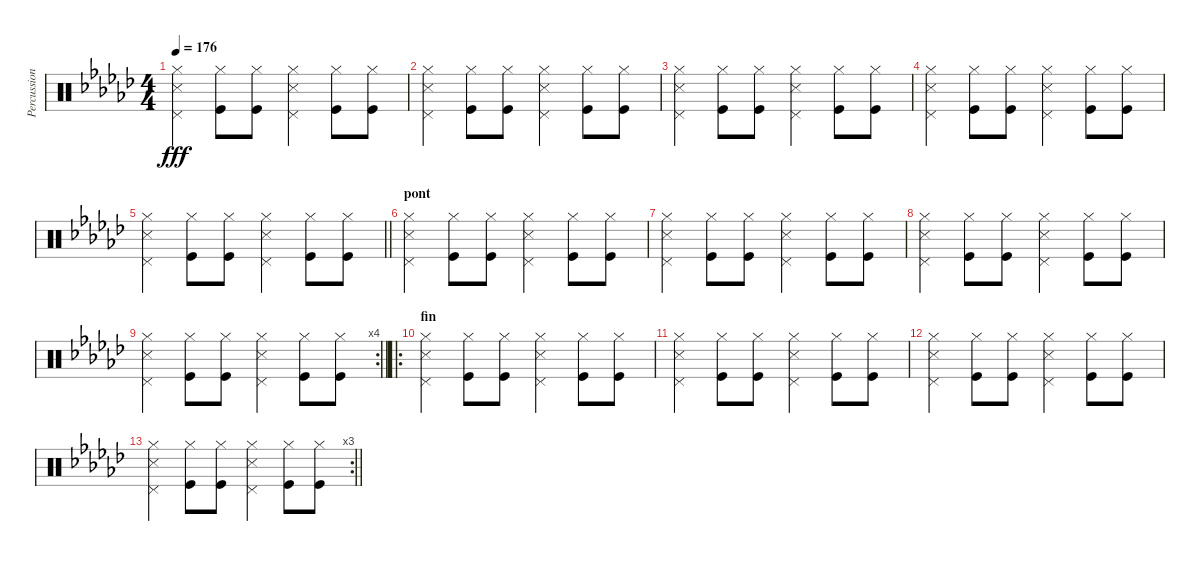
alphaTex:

\track ("Percussions" "Percussion") {instrument percussion}
\staff {score}
\articulation defaults
\ts (4 4)
\tempo 176
\clef neutral
\ks gb
("Snare (side stick) 3" "Pedal Hi-Hat (hit)" "Hi-Hat (closed)").4{dy fff} ("Kick (hit)" "Hi-Hat (closed)").8 ("Kick (hit)" "Hi-Hat (closed)").8 ("Snare (side stick) 3" "Pedal Hi-Hat (hit)" "Hi-Hat (closed)").4 ("Kick (hit)" "Hi-Hat (closed)").8 ("Kick (hit)" "Hi-Hat (closed)").8 |
("Snare (side stick) 3" "Pedal Hi-Hat (hit)" "Hi-Hat (closed)").4 ("Kick (hit)" "Hi-Hat (closed)").8 ("Kick (hit)" "Hi-Hat (closed)").8 ("Snare (side stick) 3" "Pedal Hi-Hat (hit)" "Hi-Hat (closed)").4 ("Kick (hit)" "Hi-Hat (closed)").8 ("Kick (hit)" "Hi-Hat (closed)").8 |
("Snare (side stick) 3" "Pedal Hi-Hat (hit)" "Hi-Hat (closed)").4 ("Kick (hit)" "Hi-Hat (closed)").8 ("Kick (hit)" "Hi-Hat (closed)").8 ("Snare (side stick) 3" "Pedal Hi-Hat (hit)" "Hi-Hat (closed)").4 ("Kick (hit)" "Hi-Hat (closed)").8 ("Kick (hit)" "Hi-Hat (closed)").8 |
("Snare (side stick) 3" "Pedal Hi-Hat (hit)" "Hi-Hat (closed)").4 ("Kick (hit)" "Hi-Hat (closed)").8 ("Kick (hit)" "Hi-Hat (closed)").8 ("Snare (side stick) 3" "Pedal Hi-Hat (hit)" "Hi-Hat (closed)").4 ("Kick (hit)" "Hi-Hat (closed)").8 ("Kick (hit)" "Hi-Hat (closed)").8 |
\barLineRight lightlight
("Snare (side stick) 3" "Pedal Hi-Hat (hit)" "Hi-Hat (closed)").4 ("Kick (hit)" "Hi-Hat (closed)").8 ("Kick (hit)" "Hi-Hat (closed)").8 ("Snare (side stick) 3" "Pedal Hi-Hat (hit)" "Hi-Hat (closed)").4 ("Kick (hit)" "Hi-Hat (closed)").8 ("Kick (hit)" "Hi-Hat (closed)").8 |
\section ("" "pont")
("Snare (side stick) 3" "Pedal Hi-Hat (hit)" "Hi-Hat (closed)").4 ("Kick (hit)" "Hi-Hat (closed)").8 ("Kick (hit)" "Hi-Hat (closed)").8 ("Snare (side stick) 3" "Pedal Hi-Hat (hit)" "Hi-Hat (closed)").4 ("Kick (hit)" "Hi-Hat (closed)").8 ("Kick (hit)" "Hi-Hat (closed)").8 |
("Snare (side stick) 3" "Pedal Hi-Hat (hit)" "Hi-Hat (closed)").4 ("Kick (hit)" "Hi-Hat (closed)").8 ("Kick (hit)" "Hi-Hat (closed)").8 ("Snare (side stick) 3" "Pedal Hi-Hat (hit)" "Hi-Hat (closed)").4 ("Kick (hit)" "Hi-Hat (closed)").8 ("Kick (hit)" "Hi-Hat (closed)").8 |
("Snare (side stick) 3" "Pedal Hi-Hat (hit)" "Hi-Hat (closed)").4 ("Kick (hit)" "Hi-Hat (closed)").8 ("Kick (hit)" "Hi-Hat (closed)").8 ("Snare (side stick) 3" "Pedal Hi-Hat (hit)" "Hi-Hat (closed)").4 ("Kick (hit)" "Hi-Hat (closed)").8 ("Kick (hit)" "Hi-Hat (closed)").8 |
\rc 4
\barLineRight lightlight
("Snare (side stick) 3" "Pedal Hi-Hat (hit)" "Hi-Hat (closed)").4 ("Kick (hit)" "Hi-Hat (closed)").8 ("Kick (hit)" "Hi-Hat (closed)").8 ("Snare (side stick) 3" "Pedal Hi-Hat (hit)" "Hi-Hat (closed)").4 ("Kick (hit)" "Hi-Hat (closed)").8 ("Kick (hit)" "Hi-Hat (closed)").8 |
\ro
\section ("" "fin")
("Snare (side stick) 3" "Pedal Hi-Hat (hit)" "Hi-Hat (closed)").4 ("Kick (hit)" "Hi-Hat (closed)").8 ("Kick (hit)" "Hi-Hat (closed)").8 ("Snare (side stick) 3" "Pedal Hi-Hat (hit)" "Hi-Hat (closed)").4 ("Kick (hit)" "Hi-Hat (closed)").8 ("Kick (hit)" "Hi-Hat (closed)").8 |
("Snare (side stick) 3" "Pedal Hi-Hat (hit)" "Hi-Hat (closed)").4 ("Kick (hit)" "Hi-Hat (closed)").8 ("Kick (hit)" "Hi-Hat (closed)").8 ("Snare (side stick) 3" "Pedal Hi-Hat (hit)" "Hi-Hat (closed)").4 ("Kick (hit)" "Hi-Hat (closed)").8 ("Kick (hit)" "Hi-Hat (closed)").8 |
("Snare (side stick) 3" "Pedal Hi-Hat (hit)" "Hi-Hat (closed)").4 ("Kick (hit)" "Hi-Hat (closed)").8 ("Kick (hit)" "Hi-Hat (closed)").8 ("Snare (side stick) 3" "Pedal Hi-Hat (hit)" "Hi-Hat (closed)").4 ("Kick (hit)" "Hi-Hat (closed)").8 ("Kick (hit)" "Hi-Hat (closed)").8 |
\rc 3
\barLineRight lightlight
("Snare (side stick) 3" "Pedal Hi-Hat (hit)" "Hi-Hat (closed)").4 ("Kick (hit)" "Hi-Hat (closed)").8 ("Kick (hit)" "Hi-Hat (closed)").8 ("Snare (side stick) 3" "Pedal Hi-Hat (hit)" "Hi-Hat (closed)").4 ("Kick (hit)" "Hi-Hat (closed)").8 ("Kick (hit)" "Hi-Hat (closed)").8
